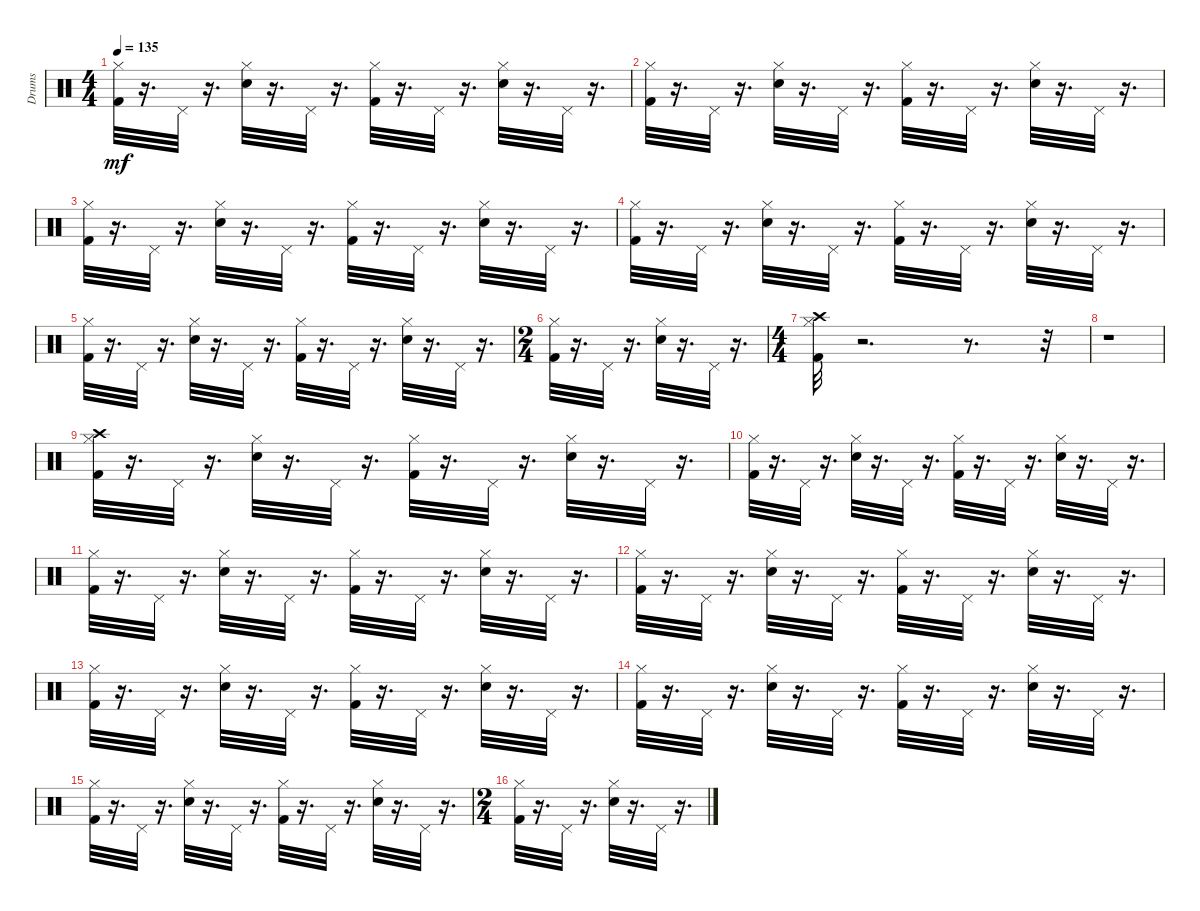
\track ("Drums" "Drums") {instrument percussion}
\staff {score}
\articulation defaults
\ts (4 4)
\tempo 135
\clef neutral
\ks c
("Hi-Hat (closed)" "Kick (hit) 2").32{dy mf} r.16{d} "Pedal Hi-Hat (hit)".32 r.16{d} ("Hi-Hat (closed)" "Snare (hit) 2").32 r.16{d} "Pedal Hi-Hat (hit)".32 r.16{d} ("Hi-Hat (closed)" "Kick (hit) 2").32 r.16{d} "Pedal Hi-Hat (hit)".32 r.16{d} ("Hi-Hat (closed)" "Snare (hit) 2").32 r.16{d} "Pedal Hi-Hat (hit)".32 r.16{d} |
("Hi-Hat (closed)" "Kick (hit) 2").32 r.16{d} "Pedal Hi-Hat (hit)".32 r.16{d} ("Hi-Hat (closed)" "Snare (hit) 2").32 r.16{d} "Pedal Hi-Hat (hit)".32 r.16{d} ("Hi-Hat (closed)" "Kick (hit) 2").32 r.16{d} "Pedal Hi-Hat (hit)".32 r.16{d} ("Hi-Hat (closed)" "Snare (hit) 2").32 r.16{d} "Pedal Hi-Hat (hit)".32 r.16{d} |
("Hi-Hat (closed)" "Kick (hit) 2").32 r.16{d} "Pedal Hi-Hat (hit)".32 r.16{d} ("Hi-Hat (closed)" "Snare (hit) 2").32 r.16{d} "Pedal Hi-Hat (hit)".32 r.16{d} ("Hi-Hat (closed)" "Kick (hit) 2").32 r.16{d} "Pedal Hi-Hat (hit)".32 r.16{d} ("Hi-Hat (closed)" "Snare (hit) 2").32 r.16{d} "Pedal Hi-Hat (hit)".32 r.16{d} |
("Hi-Hat (closed)" "Kick (hit) 2").32 r.16{d} "Pedal Hi-Hat (hit)".32 r.16{d} ("Hi-Hat (closed)" "Snare (hit) 2").32 r.16{d} "Pedal Hi-Hat (hit)".32 r.16{d} ("Hi-Hat (closed)" "Kick (hit) 2").32 r.16{d} "Pedal Hi-Hat (hit)".32 r.16{d} ("Hi-Hat (closed)" "Snare (hit) 2").32 r.16{d} "Pedal Hi-Hat (hit)".32 r.16{d} |
("Hi-Hat (closed)" "Kick (hit) 2").32 r.16{d} "Pedal Hi-Hat (hit)".32 r.16{d} ("Hi-Hat (closed)" "Snare (hit) 2").32 r.16{d} "Pedal Hi-Hat (hit)".32 r.16{d} ("Hi-Hat (closed)" "Kick (hit) 2").32 r.16{d} "Pedal Hi-Hat (hit)".32 r.16{d} ("Hi-Hat (closed)" "Snare (hit) 2").32 r.16{d} "Pedal Hi-Hat (hit)".32 r.16{d} |
\ts (2 4)
("Hi-Hat (closed)" "Kick (hit) 2").32 r.16{d} "Pedal Hi-Hat (hit)".32 r.16{d} ("Hi-Hat (closed)" "Snare (hit) 2").32 r.16{d} "Pedal Hi-Hat (hit)".32 r.16{d} |
\ts (4 4)
("Hi-Hat (closed)" "Kick (hit) 2" "Crash high (hit)").32 r.2{d} r.8{d} r.32 |
r.1 |
("Crash high (hit)" "Hi-Hat (closed)" "Kick (hit) 2").32 r.16{d} "Pedal Hi-Hat (hit)".32 r.16{d} ("Hi-Hat (closed)" "Snare (hit) 2").32 r.16{d} "Pedal Hi-Hat (hit)".32 r.16{d} ("Hi-Hat (closed)" "Kick (hit) 2").32 r.16{d} "Pedal Hi-Hat (hit)".32 r.16{d} ("Hi-Hat (closed)" "Snare (hit) 2").32 r.16{d} "Pedal Hi-Hat (hit)".32 r.16{d} |
("Hi-Hat (closed)" "Kick (hit) 2").32 r.16{d} "Pedal Hi-Hat (hit)".32 r.16{d} ("Hi-Hat (closed)" "Snare (hit) 2").32 r.16{d} "Pedal Hi-Hat (hit)".32 r.16{d} ("Hi-Hat (closed)" "Kick (hit) 2").32 r.16{d} "Pedal Hi-Hat (hit)".32 r.16{d} ("Hi-Hat (closed)" "Snare (hit) 2").32 r.16{d} "Pedal Hi-Hat (hit)".32 r.16{d} |
("Hi-Hat (closed)" "Kick (hit) 2").32 r.16{d} "Pedal Hi-Hat (hit)".32 r.16{d} ("Hi-Hat (closed)" "Snare (hit) 2").32 r.16{d} "Pedal Hi-Hat (hit)".32 r.16{d} ("Hi-Hat (closed)" "Kick (hit) 2").32 r.16{d} "Pedal Hi-Hat (hit)".32 r.16{d} ("Hi-Hat (closed)" "Snare (hit) 2").32 r.16{d} "Pedal Hi-Hat (hit)".32 r.16{d} |
("Hi-Hat (closed)" "Kick (hit) 2").32 r.16{d} "Pedal Hi-Hat (hit)".32 r.16{d} ("Hi-Hat (closed)" "Snare (hit) 2").32 r.16{d} "Pedal Hi-Hat (hit)".32 r.16{d} ("Hi-Hat (closed)" "Kick (hit) 2").32 r.16{d} "Pedal Hi-Hat (hit)".32 r.16{d} ("Hi-Hat (closed)" "Snare (hit) 2").32 r.16{d} "Pedal Hi-Hat (hit)".32 r.16{d} |
("Hi-Hat (closed)" "Kick (hit) 2").32 r.16{d} "Pedal Hi-Hat (hit)".32 r.16{d} ("Hi-Hat (closed)" "Snare (hit) 2").32 r.16{d} "Pedal Hi-Hat (hit)".32 r.16{d} ("Hi-Hat (closed)" "Kick (hit) 2").32 r.16{d} "Pedal Hi-Hat (hit)".32 r.16{d} ("Hi-Hat (closed)" "Snare (hit) 2").32 r.16{d} "Pedal Hi-Hat (hit)".32 r.16{d} |
("Hi-Hat (closed)" "Kick (hit) 2").32 r.16{d} "Pedal Hi-Hat (hit)".32 r.16{d} ("Hi-Hat (closed)" "Snare (hit) 2").32 r.16{d} "Pedal Hi-Hat (hit)".32 r.16{d} ("Hi-Hat (closed)" "Kick (hit) 2").32 r.16{d} "Pedal Hi-Hat (hit)".32 r.16{d} ("Hi-Hat (closed)" "Snare (hit) 2").32 r.16{d} "Pedal Hi-Hat (hit)".32 r.16{d} |
("Hi-Hat (closed)" "Kick (hit) 2").32 r.16{d} "Pedal Hi-Hat (hit)".32 r.16{d} ("Hi-Hat (closed)" "Snare (hit) 2").32 r.16{d} "Pedal Hi-Hat (hit)".32 r.16{d} ("Hi-Hat (closed)" "Kick (hit) 2").32 r.16{d} "Pedal Hi-Hat (hit)".32 r.16{d} ("Hi-Hat (closed)" "Snare (hit) 2").32 r.16{d} "Pedal Hi-Hat (hit)".32 r.16{d} |
\ts (2 4)
("Hi-Hat (closed)" "Kick (hit) 2").32 r.16{d} "Pedal Hi-Hat (hit)".32 r.16{d} ("Hi-Hat (closed)" "Snare (hit) 2").32 r.16{d} "Pedal Hi-Hat (hit)".32 r.16{d}
